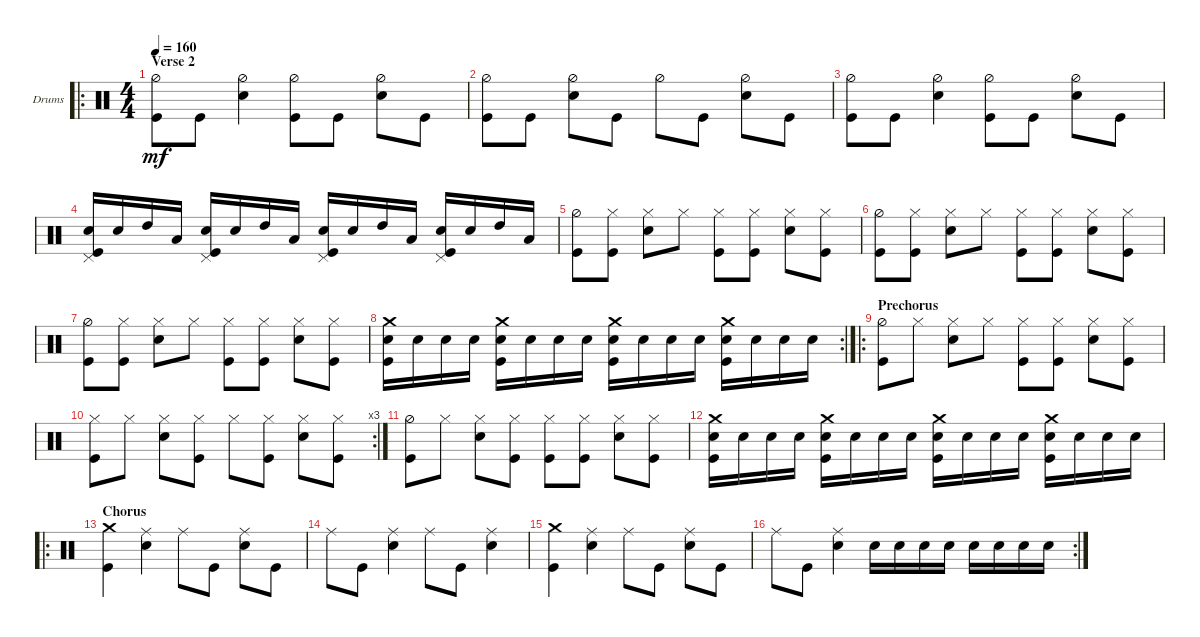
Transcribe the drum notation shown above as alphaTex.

\defaultSystemsLayout 4
\bracketExtendMode groupsimilarinstruments
\firstSystemTrackNameOrientation horizontal
\otherSystemsTrackNameOrientation horizontal
\track ("Drumkit" "Drums") {instrument percussion}
\staff {score}
\articulation defaults
\ro
\ts (4 4)
\section ("" "Verse 2")
\tempo 160
\clef neutral
\scale
0.377778
\ks c
("Kick (hit)" "Hi-Hat (half)").8{dy mf} "Kick (hit)".8 ("Snare (hit) 2" "Hi-Hat (half)").4 ("Hi-Hat (half)" "Kick (hit)").8 "Kick (hit)".8 ("Snare (hit) 2" "Hi-Hat (half)").8 "Kick (hit)".8 |
\scale
0.333333 ("Kick (hit)" "Hi-Hat (half)").8 "Kick (hit)".8 ("Snare (hit) 2" "Hi-Hat (half)").8 "Kick (hit)".8 "Hi-Hat (half)".8 "Kick (hit)".8 ("Hi-Hat (half)" "Snare (hit) 2").8 "Kick (hit)".8 |
\scale
0.333333 ("Kick (hit)" "Hi-Hat (half)").8 "Kick (hit)".8 ("Snare (hit) 2" "Hi-Hat (half)").4 ("Hi-Hat (half)" "Kick (hit)").8 "Kick (hit)".8 ("Snare (hit) 2" "Hi-Hat (half)").8 "Kick (hit)".8 |
\scale
0.333333 ("Snare (hit) 2" "Kick (hit)" "Pedal Hi-Hat (hit)").16 "Snare (hit) 2".16 "High Tom (hit)".16 "Low Tom (hit)".16 ("Snare (hit) 2" "Kick (hit)" "Pedal Hi-Hat (hit)").16 "Snare (hit) 2".16 "High Tom (hit)".16 "Low Tom (hit)".16 ("Snare (hit) 2" "Kick (hit)" "Pedal Hi-Hat (hit)").16 "Snare (hit) 2".16 "High Tom (hit)".16 "Low Tom (hit)".16 ("Snare (hit) 2" "Kick (hit)" "Pedal Hi-Hat (hit)").16 "Snare (hit) 2".16 "High Tom (hit)".16 "Low Tom (hit)".16 |
\scale
0.333333 ("Kick (hit)" "Hi-Hat (half)").8 ("Hi-Hat (closed)" "Kick (hit)").8 ("Snare (hit) 2" "Hi-Hat (closed)").8 "Hi-Hat (closed)".8 ("Hi-Hat (closed)" "Kick (hit)").8 ("Kick (hit)" "Hi-Hat (closed)").8 ("Hi-Hat (closed)" "Snare (hit) 2").8 ("Hi-Hat (closed)" "Kick (hit)").8 |
\scale
0.333333 ("Kick (hit)" "Hi-Hat (half)").8 ("Hi-Hat (closed)" "Kick (hit)").8 ("Snare (hit) 2" "Hi-Hat (closed)").8 "Hi-Hat (closed)".8 ("Hi-Hat (closed)" "Kick (hit)").8 ("Kick (hit)" "Hi-Hat (closed)").8 ("Hi-Hat (closed)" "Snare (hit) 2").8 ("Hi-Hat (closed)" "Kick (hit)").8 |
\scale
0.333333 ("Kick (hit)" "Hi-Hat (half)").8 ("Hi-Hat (closed)" "Kick (hit)").8 ("Snare (hit) 2" "Hi-Hat (closed)").8 "Hi-Hat (closed)".8 ("Hi-Hat (closed)" "Kick (hit)").8 ("Kick (hit)" "Hi-Hat (closed)").8 ("Hi-Hat (closed)" "Snare (hit) 2").8 ("Hi-Hat (closed)" "Kick (hit)").8 |
\rc 2
\scale
0.322917 ("Crash medium (hit)" "Kick (hit)" "Snare (hit) 2").16 "Snare (hit) 2".16 "Snare (hit) 2".16 "Snare (hit) 2".16 ("Snare (hit) 2" "Crash medium (hit)" "Kick (hit)").16 "Snare (hit) 2".16 "Snare (hit) 2".16 "Snare (hit) 2".16 ("Snare (hit) 2" "Kick (hit)" "Crash medium (hit)").16 "Snare (hit) 2".16 "Snare (hit) 2".16 "Snare (hit) 2".16 ("Snare (hit) 2" "Crash medium (hit)" "Kick (hit)").16 "Snare (hit) 2".16 "Snare (hit) 2".16 "Snare (hit) 2".16 |
\ro
\section ("" "Prechorus")
\scale
0.354167 ("Kick (hit)" "Hi-Hat (half)").8 "Hi-Hat (closed)".8 ("Snare (hit) 2" "Hi-Hat (closed)").8 "Hi-Hat (closed)".8 ("Hi-Hat (closed)" "Kick (hit)").8 ("Kick (hit)" "Hi-Hat (closed)").8 ("Hi-Hat (closed)" "Snare (hit) 2").8 ("Hi-Hat (closed)" "Kick (hit)").8 |
\rc 3
\scale
0.322917 ("Kick (hit)" "Hi-Hat (closed)").8 "Hi-Hat (closed)".8 ("Snare (hit) 2" "Hi-Hat (closed)").8 ("Hi-Hat (closed)" "Kick (hit)").8 "Hi-Hat (closed)".8 ("Kick (hit)" "Hi-Hat (closed)").8 ("Hi-Hat (closed)" "Snare (hit) 2").8 ("Hi-Hat (closed)" "Kick (hit)").8 |
\scale
0.311111 ("Kick (hit)" "Hi-Hat (half)").8 "Hi-Hat (closed)".8 ("Snare (hit) 2" "Hi-Hat (closed)").8 ("Hi-Hat (closed)" "Kick (hit)").8 ("Hi-Hat (closed)" "Kick (hit)").8 ("Kick (hit)" "Hi-Hat (closed)").8 ("Hi-Hat (closed)" "Snare (hit) 2").8 ("Hi-Hat (closed)" "Kick (hit)").8 |
\scale
0.311111 ("Crash medium (hit)" "Kick (hit)" "Snare (hit) 2").16 "Snare (hit) 2".16 "Snare (hit) 2".16 "Snare (hit) 2".16 ("Snare (hit) 2" "Crash medium (hit)" "Kick (hit)").16 "Snare (hit) 2".16 "Snare (hit) 2".16 "Snare (hit) 2".16 ("Snare (hit) 2" "Kick (hit)" "Crash medium (hit)").16 "Snare (hit) 2".16 "Snare (hit) 2".16 "Snare (hit) 2".16 ("Snare (hit) 2" "Crash medium (hit)" "Kick (hit)").16 "Snare (hit) 2".16 "Snare (hit) 2".16 "Snare (hit) 2".16 |
\ro
\section ("" "Chorus")
\scale
0.377778 ("Crash medium (hit)" "Kick (hit)").4 ("Ride (middle)" "Snare (hit) 2").4 "Ride (middle)".8 "Kick (hit)".8 ("Ride (middle)" "Snare (hit) 2").8 "Kick (hit)".8 |
\scale
0.321839 "Ride (middle)".8 "Kick (hit)".8 ("Ride (middle)" "Snare (hit) 2").4 "Ride (middle)".8 "Kick (hit)".8 ("Ride (middle)" "Snare (hit) 2").4 |
\scale
0.321839 ("Crash medium (hit)" "Kick (hit)").4 ("Ride (middle)" "Snare (hit) 2").4 "Ride (middle)".8 "Kick (hit)".8 ("Ride (middle)" "Snare (hit) 2").8 "Kick (hit)".8 |
\rc 2
\scale
0.356322 "Ride (middle)".8 "Kick (hit)".8 ("Ride (middle)" "Snare (hit) 2").4 "Snare (hit) 2".16 "Snare (hit) 2".16 "Snare (hit) 2".16 "Snare (hit) 2".16 "Snare (hit) 2".16 "Snare (hit) 2".16 "Snare (hit) 2".16 "Snare (hit) 2".16
